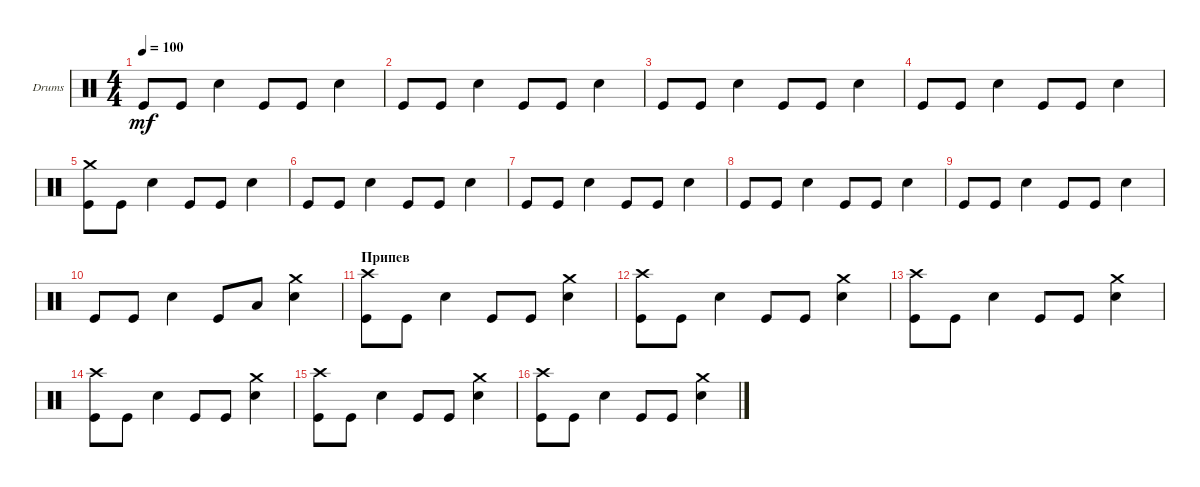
\defaultSystemsLayout 4
\bracketExtendMode groupsimilarinstruments
\firstSystemTrackNameOrientation horizontal
\otherSystemsTrackNameOrientation horizontal
\track ("Е. Кулаков" "Drums") {instrument percussion}
\staff {score}
\articulation defaults
\ts (4 4)
\tempo 100
\clef neutral
\ks c "Kick (hit)".8{dy mf} "Kick (hit)".8 "Snare (hit) 2".4 "Kick (hit)".8 "Kick (hit)".8 "Snare (hit) 2".4
|
"Kick (hit)".8 "Kick (hit)".8 "Snare (hit) 2".4 "Kick (hit)".8 "Kick (hit)".8 "Snare (hit) 2".4 |
"Kick (hit)".8 "Kick (hit)".8 "Snare (hit) 2".4 "Kick (hit)".8 "Kick (hit)".8 "Snare (hit) 2".4 |
"Kick (hit)".8 "Kick (hit)".8 "Snare (hit) 2".4 "Kick (hit)".8 "Kick (hit)".8 "Snare (hit) 2".4 |
("Kick (hit)" "Crash medium (hit)").8 "Kick (hit)".8 "Snare (hit) 2".4 "Kick (hit)".8 "Kick (hit)".8 "Snare (hit) 2".4 |
"Kick (hit)".8 "Kick (hit)".8 "Snare (hit) 2".4 "Kick (hit)".8 "Kick (hit)".8 "Snare (hit) 2".4 |
"Kick (hit)".8 "Kick (hit)".8 "Snare (hit) 2".4 "Kick (hit)".8 "Kick (hit)".8 "Snare (hit) 2".4 |
"Kick (hit)".8 "Kick (hit)".8 "Snare (hit) 2".4 "Kick (hit)".8 "Kick (hit)".8 "Snare (hit) 2".4 |
"Kick (hit)".8 "Kick (hit)".8 "Snare (hit) 2".4 "Kick (hit)".8 "Kick (hit)".8 "Snare (hit) 2".4 |
"Kick (hit)".8 "Kick (hit)".8 "Snare (hit) 2".4 "Kick (hit)".8 "Low Tom (hit)".8 ("Snare (hit) 2" "Crash medium (hit)").4 |
\section ("" "Припев")
("Kick (hit)" "Crash high (hit)").8 "Kick (hit)".8 "Snare (hit) 2".4 "Kick (hit)".8 "Kick (hit)".8 ("Snare (hit) 2" "Crash medium (hit)").4 |
("Kick (hit)" "Crash high (hit)").8 "Kick (hit)".8 "Snare (hit) 2".4 "Kick (hit)".8 "Kick (hit)".8 ("Snare (hit) 2" "Crash medium (hit)").4 |
("Kick (hit)" "Crash high (hit)").8 "Kick (hit)".8 "Snare (hit) 2".4 "Kick (hit)".8 "Kick (hit)".8 ("Snare (hit) 2" "Crash medium (hit)").4 |
("Kick (hit)" "Crash high (hit)").8 "Kick (hit)".8 "Snare (hit) 2".4 "Kick (hit)".8 "Kick (hit)".8 ("Snare (hit) 2" "Crash medium (hit)").4 |
("Kick (hit)" "Crash high (hit)").8 "Kick (hit)".8 "Snare (hit) 2".4 "Kick (hit)".8 "Kick (hit)".8 ("Snare (hit) 2" "Crash medium (hit)").4 |
("Kick (hit)" "Crash high (hit)").8 "Kick (hit)".8 "Snare (hit) 2".4 "Kick (hit)".8 "Kick (hit)".8 ("Snare (hit) 2" "Crash medium (hit)").4
